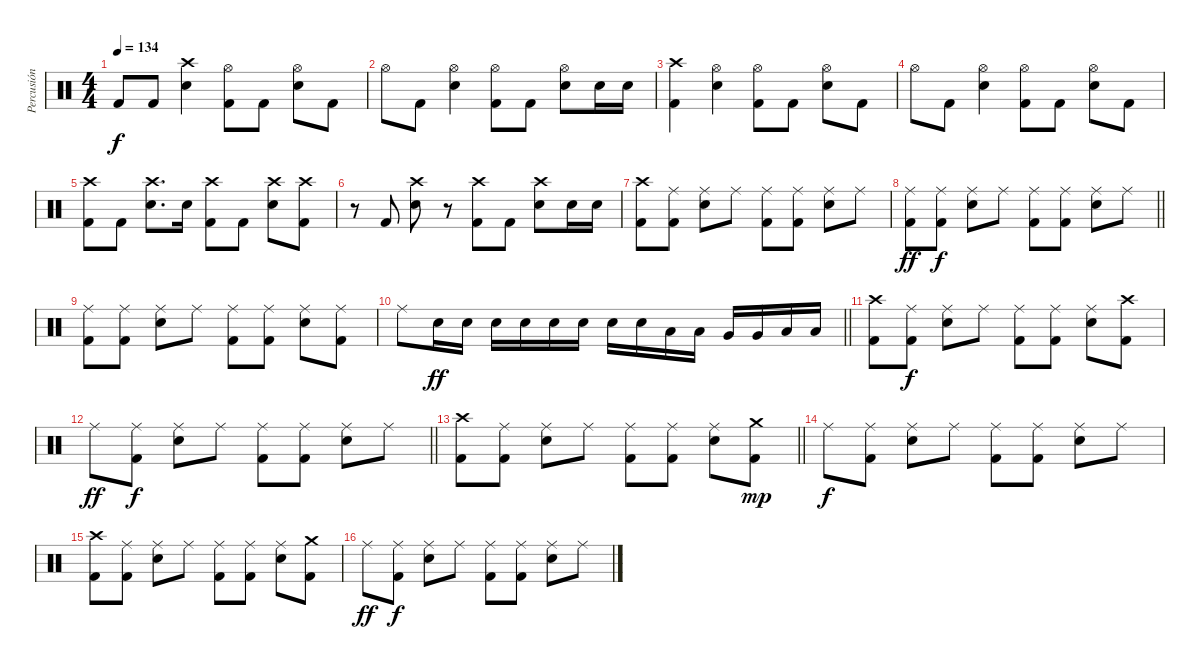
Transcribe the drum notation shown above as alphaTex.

\track ("Percusión" "Percusión") {instrument percussion}
\staff {score}
\articulation defaults
\ts (4 4)
\tempo 134
\clef neutral
\ks c "Kick (hit) 2".8{dy f} "Kick (hit) 2".8
("Crash high (hit)" "Electric Snare (hit)").4 ("Hi-Hat (open)" "Kick (hit) 2").8 "Kick (hit) 2".8 ("Hi-Hat (open)" "Electric Snare (hit)").8 "Kick (hit) 2".8 |
"Hi-Hat (open)".8 "Kick (hit) 2".8 ("Hi-Hat (open)" "Electric Snare (hit)").4 ("Hi-Hat (open)" "Kick (hit) 2").8 "Kick (hit) 2".8 ("Hi-Hat (open)" "Electric Snare (hit)").8 "Electric Snare (hit)".16 "Electric Snare (hit)".16 |
("Crash high (hit)" "Kick (hit) 2").4 ("Hi-Hat (open)" "Electric Snare (hit)").4 ("Hi-Hat (open)" "Kick (hit) 2").8 "Kick (hit) 2".8 ("Hi-Hat (open)" "Electric Snare (hit)").8 "Kick (hit) 2".8 |
"Hi-Hat (open)".8 "Kick (hit) 2".8 ("Hi-Hat (open)" "Electric Snare (hit)").4 ("Hi-Hat (open)" "Kick (hit) 2").8 "Kick (hit) 2".8 ("Hi-Hat (open)" "Electric Snare (hit)").8 "Kick (hit) 2".8 |
("Crash high (hit)" "Kick (hit) 2").8 "Kick (hit) 2".8 ("Crash high (hit)" "Electric Snare (hit)").8{d} "Electric Snare (hit)".16 ("Crash high (hit)" "Kick (hit) 2").8 "Kick (hit) 2".8 ("Crash high (hit)" "Electric Snare (hit)").8 ("Crash high (hit)" "Kick (hit) 2").8 |
r.8 "Kick (hit) 2".8 ("Crash high (hit)" "Electric Snare (hit)").8 r.8 ("Crash high (hit)" "Kick (hit) 2").8 "Kick (hit) 2".8 ("Crash high (hit)" "Electric Snare (hit)").8 "Electric Snare (hit)".16 "Electric Snare (hit)".16 |
("Crash high (hit)" "Kick (hit) 2").8 ("Ride (middle)" "Kick (hit) 2").8 ("Ride (middle)" "Electric Snare (hit)").8 "Ride (middle)".8 ("Ride (middle)" "Kick (hit) 2").8 ("Ride (middle)" "Kick (hit) 2").8 ("Ride (middle)" "Electric Snare (hit)").8 "Ride (middle)".8 |
\barLineRight lightlight
("Ride (middle)" "Kick (hit) 2").8{dy ff} ("Ride (middle)" "Kick (hit) 2").8{dy f} ("Ride (middle)" "Electric Snare (hit)").8 "Ride (middle)".8 ("Ride (middle)" "Kick (hit) 2").8 ("Ride (middle)" "Kick (hit) 2").8 ("Ride (middle)" "Electric Snare (hit)").8 "Ride (middle)".8 |
("Ride (middle)" "Kick (hit) 2").8 ("Ride (middle)" "Kick (hit) 2").8 ("Ride (middle)" "Electric Snare (hit)").8 "Ride (middle)".8 ("Ride (middle)" "Kick (hit) 2").8 ("Ride (middle)" "Kick (hit) 2").8 ("Ride (middle)" "Electric Snare (hit)").8 ("Ride (middle)" "Kick (hit) 2").8 |
\barLineRight lightlight "Ride (middle)".8 "Electric Snare (hit)".16{dy ff} "Electric Snare (hit)".16 "Electric Snare (hit)".16 "Electric Snare (hit)".16 "Electric Snare (hit)".16 "Electric Snare (hit)".16 "Electric Snare (hit)".16 "Electric Snare (hit)".16 "Low Tom (hit)".16 "Low Tom (hit)".16 "Very Low Tom (hit)".16 "Very Low Tom (hit)".16 "Low Floor Tom (hit)".16 "Low Floor Tom (hit)".16
|
("Crash high (hit)" "Kick (hit) 2").8 ("Ride (middle)" "Kick (hit) 2").8{dy f} ("Ride (middle)" "Electric Snare (hit)").8 "Ride (middle)".8 ("Ride (middle)" "Kick (hit) 2").8 ("Ride (middle)" "Kick (hit) 2").8 ("Ride (middle)" "Electric Snare (hit)").8 ("Crash high (hit)" "Kick (hit) 2").8 |
\barLineRight lightlight "Ride (middle)".8{dy ff}
("Ride (middle)" "Kick (hit) 2").8{dy f} ("Ride (middle)" "Electric Snare (hit)").8 "Ride (middle)".8 ("Ride (middle)" "Kick (hit) 2").8 ("Ride (middle)" "Kick (hit) 2").8 ("Ride (middle)" "Electric Snare (hit)").8 "Ride (middle)".8 |
\barLineRight lightlight
("Crash high (hit)" "Kick (hit) 2").8 ("Ride (middle)" "Kick (hit) 2").8 ("Ride (middle)" "Electric Snare (hit)").8 "Ride (middle)".8 ("Ride (middle)" "Kick (hit) 2").8 ("Ride (middle)" "Kick (hit) 2").8 ("Ride (middle)" "Electric Snare (hit)").8 ("Crash medium (hit)" "Kick (hit) 2").8{dy mp} |
"Ride (middle)".8{dy f} ("Ride (middle)" "Kick (hit) 2").8 ("Ride (middle)" "Electric Snare (hit)").8 "Ride (middle)".8 ("Ride (middle)" "Kick (hit) 2").8 ("Ride (middle)" "Kick (hit) 2").8 ("Ride (middle)" "Electric Snare (hit)").8 "Ride (middle)".8 |
("Crash high (hit)" "Kick (hit) 2").8 ("Ride (middle)" "Kick (hit) 2").8 ("Ride (middle)" "Electric Snare (hit)").8 "Ride (middle)".8 ("Ride (middle)" "Kick (hit) 2").8 ("Ride (middle)" "Kick (hit) 2").8 ("Ride (middle)" "Electric Snare (hit)").8 ("Crash medium (hit)" "Kick (hit) 2").8 |
"Ride (middle)".8{dy ff} ("Ride (middle)" "Kick (hit) 2").8{dy f} ("Ride (middle)" "Electric Snare (hit)").8 "Ride (middle)".8 ("Ride (middle)" "Kick (hit) 2").8 ("Ride (middle)" "Kick (hit) 2").8 ("Ride (middle)" "Electric Snare (hit)").8 "Ride (middle)".8
